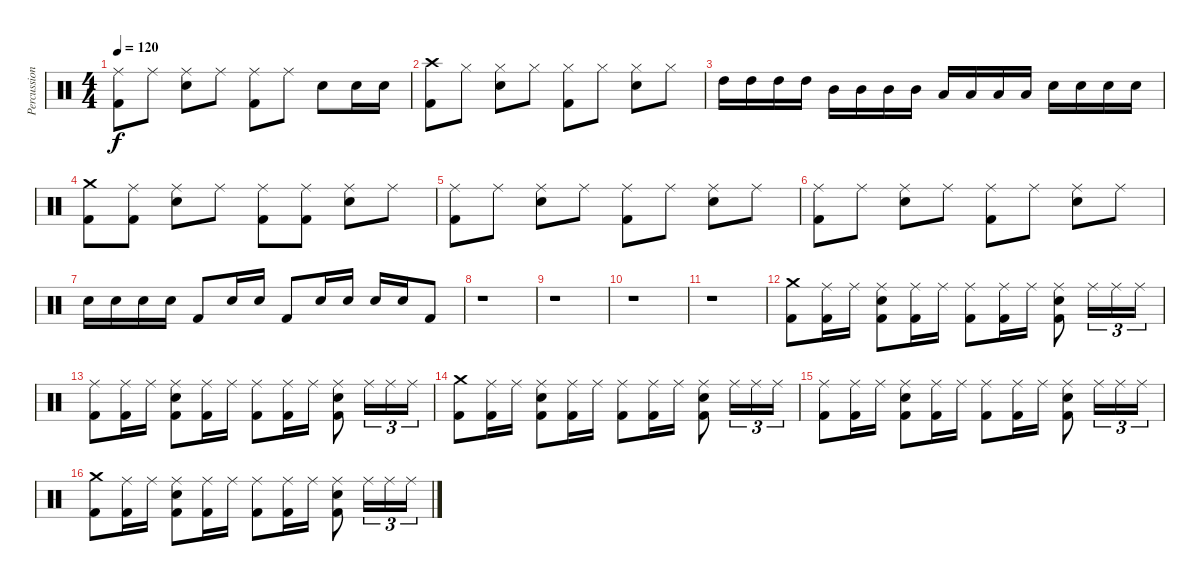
\track ("Percussions" "Percussion") {instrument percussion}
\staff {score}
\articulation defaults
\ts (4 4)
\tempo 120
\clef neutral
\ks c
("Ride (middle)" "Kick (hit) 2").8{dy f} "Ride (middle)".8 ("Ride (middle)" "Electric Snare (hit)").8 "Ride (middle)".8 ("Ride (middle)" "Kick (hit) 2").8 "Ride (middle)".8 "Electric Snare (hit)".8 "Electric Snare (hit)".16 "Electric Snare (hit)".16 |
("Crash high (hit)" "Kick (hit) 2").8 "Hi-Hat (closed)".8 ("Hi-Hat (closed)" "Electric Snare (hit)").8 "Hi-Hat (closed)".8 ("Hi-Hat (closed)" "Kick (hit) 2").8 "Hi-Hat (closed)".8 ("Hi-Hat (closed)" "Electric Snare (hit)").8 "Hi-Hat (closed)".8 |
"High Tom (hit)".16 "High Tom (hit)".16 "High Tom (hit)".16 "High Tom (hit)".16 "Mid Tom (hit)".16 "Mid Tom (hit)".16 "Mid Tom (hit)".16 "Mid Tom (hit)".16 "Low Tom (hit)".16 "Low Tom (hit)".16 "Low Tom (hit)".16 "Low Tom (hit)".16 "Electric Snare (hit)".16 "Electric Snare (hit)".16 "Electric Snare (hit)".16 "Electric Snare (hit)".16 |
("Crash medium (hit)" "Kick (hit) 2").8 ("Ride (middle)" "Kick (hit) 2").8 ("Ride (middle)" "Electric Snare (hit)").8 "Ride (middle)".8 ("Ride (middle)" "Kick (hit) 2").8 ("Ride (middle)" "Kick (hit) 2").8 ("Ride (middle)" "Electric Snare (hit)").8 "Ride (middle)".8 |
("Ride (middle)" "Kick (hit) 2").8 "Ride (middle)".8 ("Ride (middle)" "Electric Snare (hit)").8 "Ride (middle)".8 ("Ride (middle)" "Kick (hit) 2").8 "Ride (middle)".8 ("Ride (middle)" "Electric Snare (hit)").8 "Ride (middle)".8 |
("Ride (middle)" "Kick (hit) 2").8 "Ride (middle)".8 ("Ride (middle)" "Electric Snare (hit)").8 "Ride (middle)".8 ("Ride (middle)" "Kick (hit) 2").8 "Ride (middle)".8 ("Ride (middle)" "Electric Snare (hit)").8 "Ride (middle)".8 |
"Electric Snare (hit)".16 "Electric Snare (hit)".16 "Electric Snare (hit)".16 "Electric Snare (hit)".16 "Kick (hit) 2".8 "Electric Snare (hit)".16 "Electric Snare (hit)".16 "Kick (hit) 2".8 "Electric Snare (hit)".16 "Electric Snare (hit)".16 "Electric Snare (hit)".16 "Electric Snare (hit)".16 "Kick (hit) 2".8 |
r.1 |
r.1 |
r.1 |
r.1 |
("Crash medium (hit)" "Kick (hit) 2").8 ("Ride (middle)" "Kick (hit) 2").16 "Ride (middle)".16 ("Ride (middle)" "Electric Snare (hit)" "Kick (hit) 2").8 ("Ride (middle)" "Kick (hit) 2").16 "Ride (middle)".16 ("Ride (middle)" "Kick (hit) 2").8 ("Ride (middle)" "Kick (hit) 2").16 "Ride (middle)".16 ("Ride (middle)" "Electric Snare (hit)" "Kick (hit) 2").8 "Ride (middle)".16{tu (3 2)} "Ride (middle)".16{tu (3 2)} "Ride (middle)".16{tu (3 2)} |
("Ride (middle)" "Kick (hit) 2").8 ("Ride (middle)" "Kick (hit) 2").16 "Ride (middle)".16 ("Ride (middle)" "Electric Snare (hit)" "Kick (hit) 2").8 ("Ride (middle)" "Kick (hit) 2").16 "Ride (middle)".16 ("Ride (middle)" "Kick (hit) 2").8 ("Ride (middle)" "Kick (hit) 2").16 "Ride (middle)".16 ("Ride (middle)" "Electric Snare (hit)" "Kick (hit) 2").8 "Ride (middle)".16{tu (3 2)} "Ride (middle)".16{tu (3 2)} "Ride (middle)".16{tu (3 2)} |
("Crash medium (hit)" "Kick (hit) 2").8 ("Ride (middle)" "Kick (hit) 2").16 "Ride (middle)".16 ("Ride (middle)" "Electric Snare (hit)" "Kick (hit) 2").8 ("Ride (middle)" "Kick (hit) 2").16 "Ride (middle)".16 ("Ride (middle)" "Kick (hit) 2").8 ("Ride (middle)" "Kick (hit) 2").16 "Ride (middle)".16 ("Ride (middle)" "Electric Snare (hit)" "Kick (hit) 2").8 "Ride (middle)".16{tu (3 2)} "Ride (middle)".16{tu (3 2)} "Ride (middle)".16{tu (3 2)} |
("Ride (middle)" "Kick (hit) 2").8 ("Ride (middle)" "Kick (hit) 2").16 "Ride (middle)".16 ("Ride (middle)" "Electric Snare (hit)" "Kick (hit) 2").8 ("Ride (middle)" "Kick (hit) 2").16 "Ride (middle)".16 ("Ride (middle)" "Kick (hit) 2").8 ("Ride (middle)" "Kick (hit) 2").16 "Ride (middle)".16 ("Ride (middle)" "Electric Snare (hit)" "Kick (hit) 2").8 "Ride (middle)".16{tu (3 2)} "Ride (middle)".16{tu (3 2)} "Ride (middle)".16{tu (3 2)} |
("Crash medium (hit)" "Kick (hit) 2").8 ("Ride (middle)" "Kick (hit) 2").16 "Ride (middle)".16 ("Ride (middle)" "Electric Snare (hit)" "Kick (hit) 2").8 ("Ride (middle)" "Kick (hit) 2").16 "Ride (middle)".16 ("Ride (middle)" "Kick (hit) 2").8 ("Ride (middle)" "Kick (hit) 2").16 "Ride (middle)".16 ("Ride (middle)" "Electric Snare (hit)" "Kick (hit) 2").8 "Ride (middle)".16{tu (3 2)} "Ride (middle)".16{tu (3 2)} "Ride (middle)".16{tu (3 2)}
